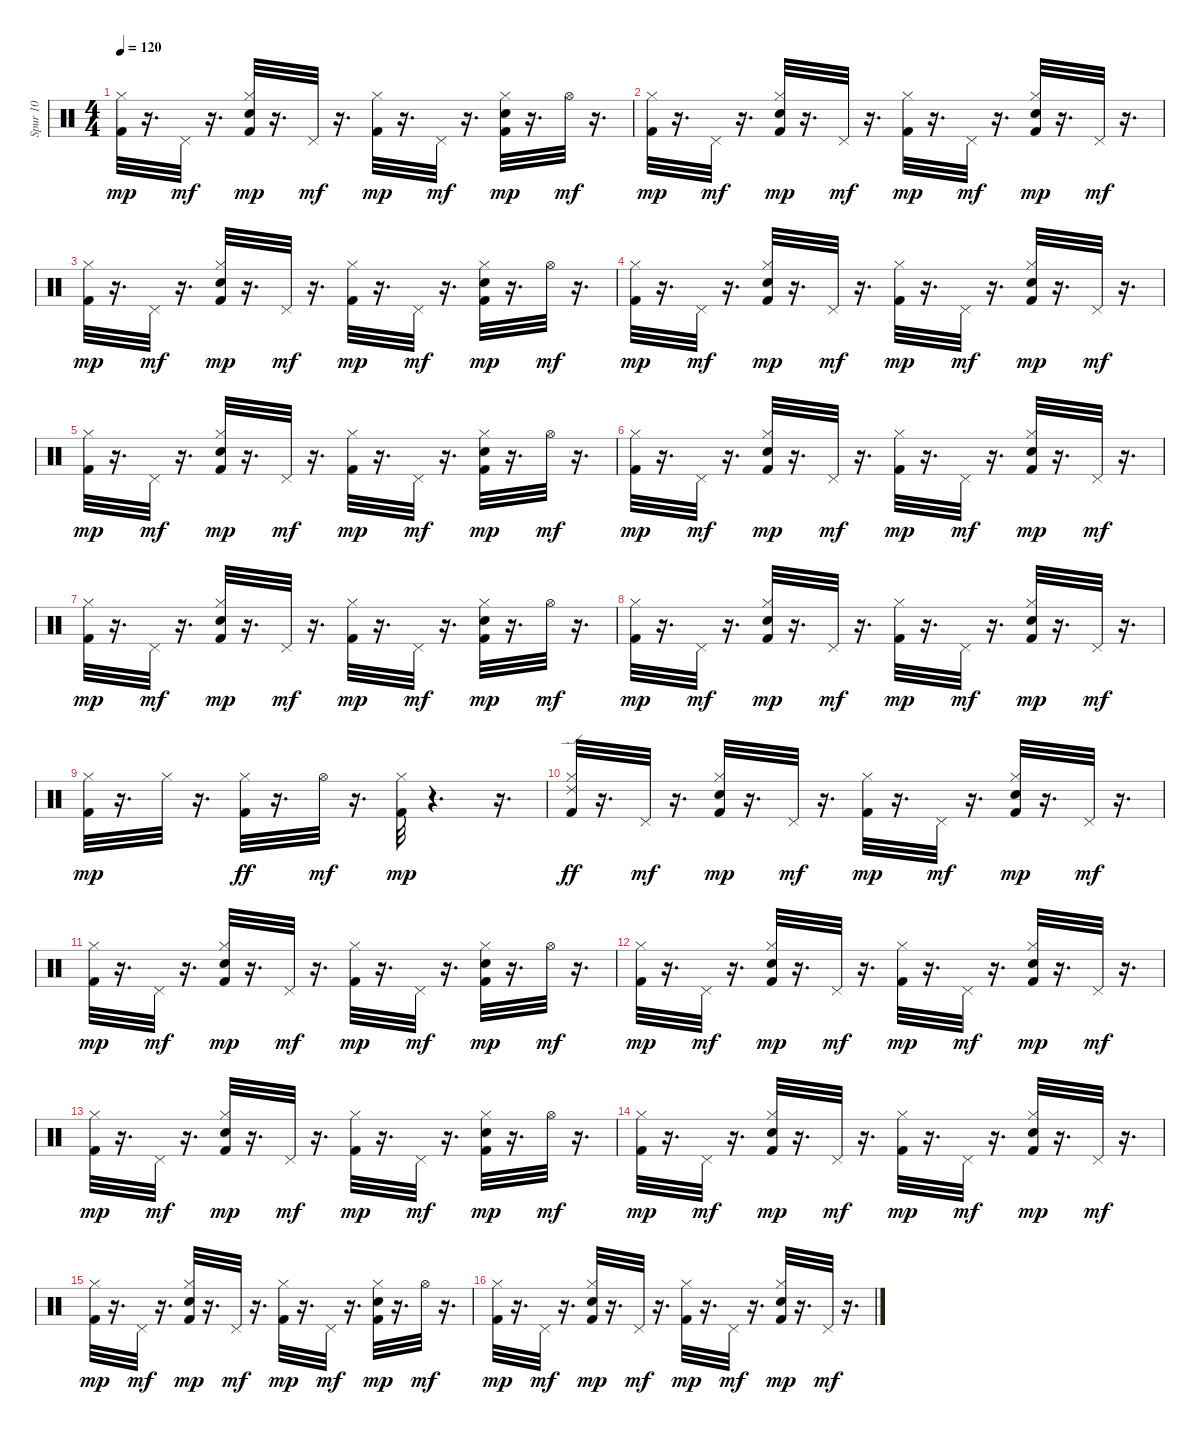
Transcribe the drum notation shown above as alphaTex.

\track ("Spur 10" "Spur 10") {instrument percussion}
\staff {score}
\articulation defaults
\ts (4 4)
\tempo 120
\clef neutral
\ks c
("Kick (hit) 2" "Hi-Hat (closed)").32{dy mp} r.16{d} "Pedal Hi-Hat (hit)".32{dy mf} r.16{d} ("Kick (hit) 2" "Electric Snare (hit)" "Hi-Hat (closed)").32{dy mp} r.16{d} "Pedal Hi-Hat (hit)".32{dy mf} r.16{d} ("Kick (hit) 2" "Hi-Hat (closed)").32{dy mp} r.16{d} "Pedal Hi-Hat (hit)".32{dy mf} r.16{d} ("Kick (hit) 2" "Electric Snare (hit)" "Hi-Hat (closed)").32{dy mp} r.16{d} "Hi-Hat (open)".32{dy mf} r.16{d} |
("Kick (hit) 2" "Hi-Hat (closed)").32{dy mp} r.16{d} "Pedal Hi-Hat (hit)".32{dy mf} r.16{d} ("Kick (hit) 2" "Electric Snare (hit)" "Hi-Hat (closed)").32{dy mp} r.16{d} "Pedal Hi-Hat (hit)".32{dy mf} r.16{d} ("Kick (hit) 2" "Hi-Hat (closed)").32{dy mp} r.16{d} "Pedal Hi-Hat (hit)".32{dy mf} r.16{d} ("Kick (hit) 2" "Electric Snare (hit)" "Hi-Hat (closed)").32{dy mp} r.16{d} "Pedal Hi-Hat (hit)".32{dy mf} r.16{d} |
("Kick (hit) 2" "Hi-Hat (closed)").32{dy mp} r.16{d} "Pedal Hi-Hat (hit)".32{dy mf} r.16{d} ("Kick (hit) 2" "Electric Snare (hit)" "Hi-Hat (closed)").32{dy mp} r.16{d} "Pedal Hi-Hat (hit)".32{dy mf} r.16{d} ("Kick (hit) 2" "Hi-Hat (closed)").32{dy mp} r.16{d} "Pedal Hi-Hat (hit)".32{dy mf} r.16{d} ("Kick (hit) 2" "Electric Snare (hit)" "Hi-Hat (closed)").32{dy mp} r.16{d} "Hi-Hat (open)".32{dy mf} r.16{d} |
("Kick (hit) 2" "Hi-Hat (closed)").32{dy mp} r.16{d} "Pedal Hi-Hat (hit)".32{dy mf} r.16{d} ("Kick (hit) 2" "Electric Snare (hit)" "Hi-Hat (closed)").32{dy mp} r.16{d} "Pedal Hi-Hat (hit)".32{dy mf} r.16{d} ("Kick (hit) 2" "Hi-Hat (closed)").32{dy mp} r.16{d} "Pedal Hi-Hat (hit)".32{dy mf} r.16{d} ("Kick (hit) 2" "Electric Snare (hit)" "Hi-Hat (closed)").32{dy mp} r.16{d} "Pedal Hi-Hat (hit)".32{dy mf} r.16{d} |
("Kick (hit) 2" "Hi-Hat (closed)").32{dy mp} r.16{d} "Pedal Hi-Hat (hit)".32{dy mf} r.16{d} ("Kick (hit) 2" "Electric Snare (hit)" "Hi-Hat (closed)").32{dy mp} r.16{d} "Pedal Hi-Hat (hit)".32{dy mf} r.16{d} ("Kick (hit) 2" "Hi-Hat (closed)").32{dy mp} r.16{d} "Pedal Hi-Hat (hit)".32{dy mf} r.16{d} ("Kick (hit) 2" "Electric Snare (hit)" "Hi-Hat (closed)").32{dy mp} r.16{d} "Hi-Hat (open)".32{dy mf} r.16{d} |
("Kick (hit) 2" "Hi-Hat (closed)").32{dy mp} r.16{d} "Pedal Hi-Hat (hit)".32{dy mf} r.16{d} ("Kick (hit) 2" "Electric Snare (hit)" "Hi-Hat (closed)").32{dy mp} r.16{d} "Pedal Hi-Hat (hit)".32{dy mf} r.16{d} ("Kick (hit) 2" "Hi-Hat (closed)").32{dy mp} r.16{d} "Pedal Hi-Hat (hit)".32{dy mf} r.16{d} ("Kick (hit) 2" "Electric Snare (hit)" "Hi-Hat (closed)").32{dy mp} r.16{d} "Pedal Hi-Hat (hit)".32{dy mf} r.16{d} |
("Kick (hit) 2" "Hi-Hat (closed)").32{dy mp} r.16{d} "Pedal Hi-Hat (hit)".32{dy mf} r.16{d} ("Kick (hit) 2" "Electric Snare (hit)" "Hi-Hat (closed)").32{dy mp} r.16{d} "Pedal Hi-Hat (hit)".32{dy mf} r.16{d} ("Kick (hit) 2" "Hi-Hat (closed)").32{dy mp} r.16{d} "Pedal Hi-Hat (hit)".32{dy mf} r.16{d} ("Kick (hit) 2" "Electric Snare (hit)" "Hi-Hat (closed)").32{dy mp} r.16{d} "Hi-Hat (open)".32{dy mf} r.16{d} |
("Kick (hit) 2" "Hi-Hat (closed)").32{dy mp} r.16{d} "Pedal Hi-Hat (hit)".32{dy mf} r.16{d} ("Kick (hit) 2" "Electric Snare (hit)" "Hi-Hat (closed)").32{dy mp} r.16{d} "Pedal Hi-Hat (hit)".32{dy mf} r.16{d} ("Kick (hit) 2" "Hi-Hat (closed)").32{dy mp} r.16{d} "Pedal Hi-Hat (hit)".32{dy mf} r.16{d} ("Kick (hit) 2" "Electric Snare (hit)" "Hi-Hat (closed)").32{dy mp} r.16{d} "Pedal Hi-Hat (hit)".32{dy mf} r.16{d} |
("Kick (hit) 2" "Hi-Hat (closed)").32{dy mp} r.16{d} "Hi-Hat (closed)".32 r.16{d} ("Hi-Hat (closed)" "Kick (hit) 2").32{dy ff} r.16{d} "Hi-Hat (open)".32{dy mf} r.16{d} ("Kick (hit) 2" "Hi-Hat (closed)").32{dy mp} r.4{d} r.16{d} |
("Ride (edge) 2" "Hi-Hat (closed)" "Kick (hit) 2").32{dy ff} r.16{d} "Pedal Hi-Hat (hit)".32{dy mf} r.16{d} ("Hi-Hat (closed)" "Kick (hit) 2" "Electric Snare (hit)").32{dy mp} r.16{d} "Pedal Hi-Hat (hit)".32{dy mf} r.16{d} ("Kick (hit) 2" "Hi-Hat (closed)").32{dy mp} r.16{d} "Pedal Hi-Hat (hit)".32{dy mf} r.16{d} ("Kick (hit) 2" "Electric Snare (hit)" "Hi-Hat (closed)").32{dy mp} r.16{d} "Pedal Hi-Hat (hit)".32{dy mf} r.16{d} |
("Kick (hit) 2" "Hi-Hat (closed)").32{dy mp} r.16{d} "Pedal Hi-Hat (hit)".32{dy mf} r.16{d} ("Kick (hit) 2" "Electric Snare (hit)" "Hi-Hat (closed)").32{dy mp} r.16{d} "Pedal Hi-Hat (hit)".32{dy mf} r.16{d} ("Kick (hit) 2" "Hi-Hat (closed)").32{dy mp} r.16{d} "Pedal Hi-Hat (hit)".32{dy mf} r.16{d} ("Kick (hit) 2" "Electric Snare (hit)" "Hi-Hat (closed)").32{dy mp} r.16{d} "Hi-Hat (open)".32{dy mf} r.16{d} |
("Kick (hit) 2" "Hi-Hat (closed)").32{dy mp} r.16{d} "Pedal Hi-Hat (hit)".32{dy mf} r.16{d} ("Kick (hit) 2" "Electric Snare (hit)" "Hi-Hat (closed)").32{dy mp} r.16{d} "Pedal Hi-Hat (hit)".32{dy mf} r.16{d} ("Kick (hit) 2" "Hi-Hat (closed)").32{dy mp} r.16{d} "Pedal Hi-Hat (hit)".32{dy mf} r.16{d} ("Kick (hit) 2" "Electric Snare (hit)" "Hi-Hat (closed)").32{dy mp} r.16{d} "Pedal Hi-Hat (hit)".32{dy mf} r.16{d} |
("Kick (hit) 2" "Hi-Hat (closed)").32{dy mp} r.16{d} "Pedal Hi-Hat (hit)".32{dy mf} r.16{d} ("Kick (hit) 2" "Electric Snare (hit)" "Hi-Hat (closed)").32{dy mp} r.16{d} "Pedal Hi-Hat (hit)".32{dy mf} r.16{d} ("Kick (hit) 2" "Hi-Hat (closed)").32{dy mp} r.16{d} "Pedal Hi-Hat (hit)".32{dy mf} r.16{d} ("Kick (hit) 2" "Electric Snare (hit)" "Hi-Hat (closed)").32{dy mp} r.16{d} "Hi-Hat (open)".32{dy mf} r.16{d} |
("Kick (hit) 2" "Hi-Hat (closed)").32{dy mp} r.16{d} "Pedal Hi-Hat (hit)".32{dy mf} r.16{d} ("Kick (hit) 2" "Electric Snare (hit)" "Hi-Hat (closed)").32{dy mp} r.16{d} "Pedal Hi-Hat (hit)".32{dy mf} r.16{d} ("Kick (hit) 2" "Hi-Hat (closed)").32{dy mp} r.16{d} "Pedal Hi-Hat (hit)".32{dy mf} r.16{d} ("Kick (hit) 2" "Electric Snare (hit)" "Hi-Hat (closed)").32{dy mp} r.16{d} "Pedal Hi-Hat (hit)".32{dy mf} r.16{d} |
("Kick (hit) 2" "Hi-Hat (closed)").32{dy mp} r.16{d} "Pedal Hi-Hat (hit)".32{dy mf} r.16{d} ("Kick (hit) 2" "Electric Snare (hit)" "Hi-Hat (closed)").32{dy mp} r.16{d} "Pedal Hi-Hat (hit)".32{dy mf} r.16{d} ("Kick (hit) 2" "Hi-Hat (closed)").32{dy mp} r.16{d} "Pedal Hi-Hat (hit)".32{dy mf} r.16{d} ("Kick (hit) 2" "Electric Snare (hit)" "Hi-Hat (closed)").32{dy mp} r.16{d} "Hi-Hat (open)".32{dy mf} r.16{d} |
("Kick (hit) 2" "Hi-Hat (closed)").32{dy mp} r.16{d} "Pedal Hi-Hat (hit)".32{dy mf} r.16{d} ("Kick (hit) 2" "Electric Snare (hit)" "Hi-Hat (closed)").32{dy mp} r.16{d} "Pedal Hi-Hat (hit)".32{dy mf} r.16{d} ("Kick (hit) 2" "Hi-Hat (closed)").32{dy mp} r.16{d} "Pedal Hi-Hat (hit)".32{dy mf} r.16{d} ("Kick (hit) 2" "Electric Snare (hit)" "Hi-Hat (closed)").32{dy mp} r.16{d} "Pedal Hi-Hat (hit)".32{dy mf} r.16{d}
